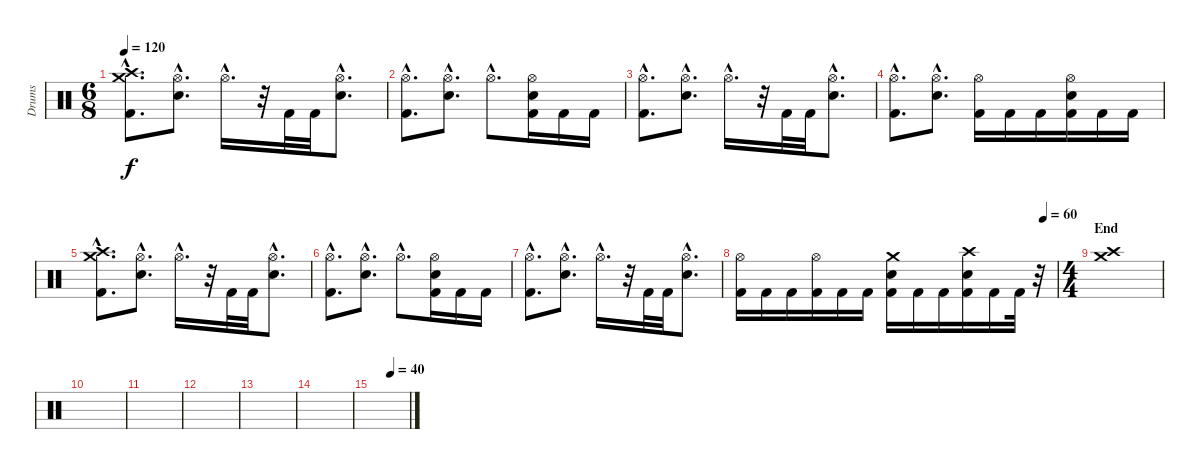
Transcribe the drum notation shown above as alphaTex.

\track ("Drums" "Drums") {instrument percussion}
\staff {score}
\articulation defaults
\ts (6 8)
\tempo 120
\clef neutral
\ks c
("Crash medium (hit)"{hac} "Crash high (hit)"{hac} "Kick (hit) 2"{hac}).8{d dy f} ("Hi-Hat (open)"{hac} "Snare (hit) 2"{hac}).8{d} "Hi-Hat (open)"{hac}.16{d} r.32 "Kick (hit) 2".32 "Kick (hit) 2".32 ("Hi-Hat (open)"{hac} "Snare (hit) 2"{hac}).8{d} |
("Hi-Hat (open)"{hac} "Kick (hit) 2"{hac}).8{d} ("Hi-Hat (open)"{hac} "Snare (hit) 2"{hac}).8{d} "Hi-Hat (open)"{hac}.8{d} ("Hi-Hat (open)" "Snare (hit) 2" "Kick (hit) 2").16 "Kick (hit) 2".16 "Kick (hit) 2".16 |
("Hi-Hat (open)"{hac} "Kick (hit) 2"{hac}).8{d} ("Hi-Hat (open)"{hac} "Snare (hit) 2"{hac}).8{d} "Hi-Hat (open)"{hac}.16{d} r.32 "Kick (hit) 2".32 "Kick (hit) 2".32 ("Hi-Hat (open)"{hac} "Snare (hit) 2"{hac}).8{d} |
("Hi-Hat (open)"{hac} "Kick (hit) 2"{hac}).8{d} ("Hi-Hat (open)"{hac} "Snare (hit) 2"{hac}).8{d} ("Hi-Hat (open)" "Kick (hit) 2").16 "Kick (hit) 2".16 "Kick (hit) 2".16 ("Hi-Hat (open)" "Snare (hit) 2" "Kick (hit) 2").16 "Kick (hit) 2".16 "Kick (hit) 2".16 |
("Crash medium (hit)"{hac} "Crash high (hit)"{hac} "Kick (hit) 2"{hac}).8{d} ("Hi-Hat (open)"{hac} "Snare (hit) 2"{hac}).8{d} "Hi-Hat (open)"{hac}.16{d} r.32 "Kick (hit) 2".32 "Kick (hit) 2".32 ("Hi-Hat (open)"{hac} "Snare (hit) 2"{hac}).8{d} |
("Hi-Hat (open)"{hac} "Kick (hit) 2"{hac}).8{d} ("Hi-Hat (open)"{hac} "Snare (hit) 2"{hac}).8{d} "Hi-Hat (open)"{hac}.8{d} ("Hi-Hat (open)" "Snare (hit) 2" "Kick (hit) 2").16 "Kick (hit) 2".16 "Kick (hit) 2".16 |
("Hi-Hat (open)"{hac} "Kick (hit) 2"{hac}).8{d} ("Hi-Hat (open)"{hac} "Snare (hit) 2"{hac}).8{d} "Hi-Hat (open)"{hac}.16{d} r.32 "Kick (hit) 2".32 "Kick (hit) 2".32 ("Hi-Hat (open)"{hac} "Snare (hit) 2"{hac}).8{d} |
\tempo (60 0.9583333333333334)
("Hi-Hat (open)" "Kick (hit) 2").16 "Kick (hit) 2".16 "Kick (hit) 2".16 ("Hi-Hat (open)" "Kick (hit) 2").16 "Kick (hit) 2".16 "Kick (hit) 2".16 ("Crash medium (hit)" "Snare (hit) 2" "Kick (hit) 2").16 "Kick (hit) 2".16 "Kick (hit) 2".16 ("Crash high (hit)" "Snare (hit) 2" "Kick (hit) 2").16 "Kick (hit) 2".16 "Kick (hit) 2".32 r.32 |
\ts (4 4)
\section ("" "End")
("Crash medium (hit)" "Crash high (hit)").1 |
|
|
|
|
|
\tempo (40 0.5)
